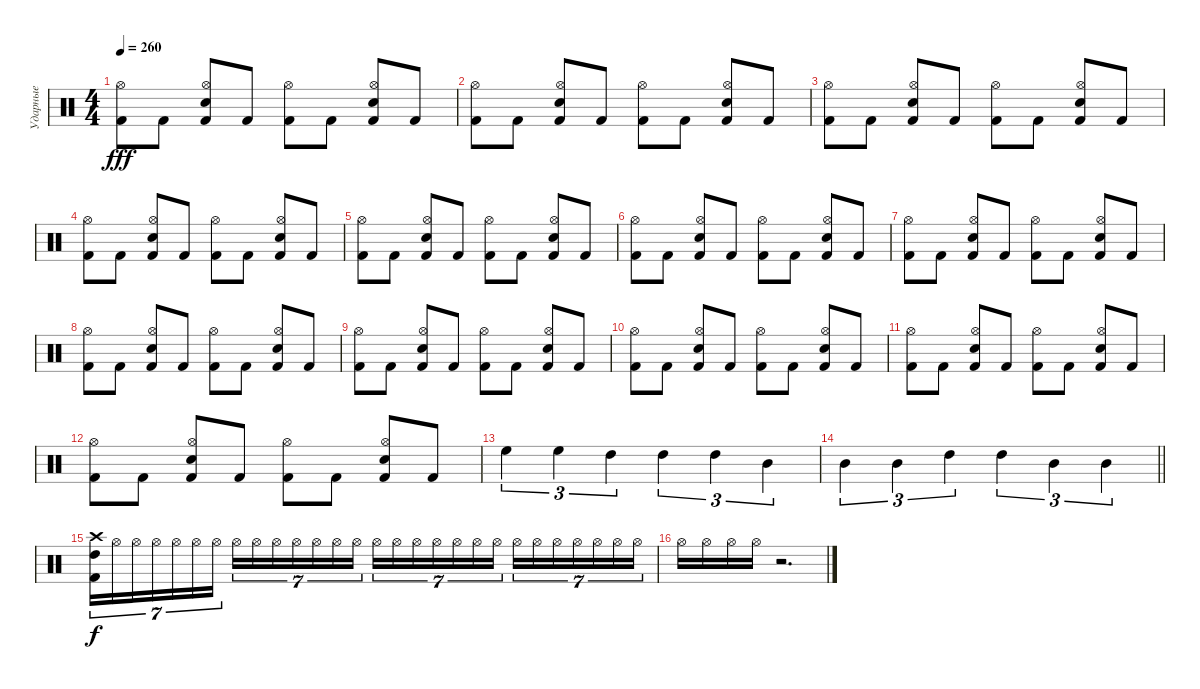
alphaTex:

\track ("Ударные" "Ударные") {instrument percussion}
\staff {score}
\articulation defaults
\ts (4 4)
\tempo 260
\clef neutral
\ks c
("Kick (hit) 2" "Hi-Hat (open)").8{dy fff} "Kick (hit) 2".8 ("Kick (hit) 2" "Snare (hit) 2" "Hi-Hat (open)").8 "Kick (hit) 2".8 ("Kick (hit) 2" "Hi-Hat (open)").8 "Kick (hit) 2".8 ("Kick (hit) 2" "Snare (hit) 2" "Hi-Hat (open)").8 "Kick (hit) 2".8 |
("Kick (hit) 2" "Hi-Hat (open)").8 "Kick (hit) 2".8 ("Kick (hit) 2" "Snare (hit) 2" "Hi-Hat (open)").8 "Kick (hit) 2".8 ("Kick (hit) 2" "Hi-Hat (open)").8 "Kick (hit) 2".8 ("Kick (hit) 2" "Snare (hit) 2" "Hi-Hat (open)").8 "Kick (hit) 2".8 |
("Kick (hit) 2" "Hi-Hat (open)").8 "Kick (hit) 2".8 ("Kick (hit) 2" "Snare (hit) 2" "Hi-Hat (open)").8 "Kick (hit) 2".8 ("Kick (hit) 2" "Hi-Hat (open)").8 "Kick (hit) 2".8 ("Kick (hit) 2" "Snare (hit) 2" "Hi-Hat (open)").8 "Kick (hit) 2".8 |
("Kick (hit) 2" "Hi-Hat (open)").8 "Kick (hit) 2".8 ("Kick (hit) 2" "Snare (hit) 2" "Hi-Hat (open)").8 "Kick (hit) 2".8 ("Kick (hit) 2" "Hi-Hat (open)").8 "Kick (hit) 2".8 ("Kick (hit) 2" "Snare (hit) 2" "Hi-Hat (open)").8 "Kick (hit) 2".8 |
("Kick (hit) 2" "Hi-Hat (open)").8 "Kick (hit) 2".8 ("Kick (hit) 2" "Snare (hit) 2" "Hi-Hat (open)").8 "Kick (hit) 2".8 ("Kick (hit) 2" "Hi-Hat (open)").8 "Kick (hit) 2".8 ("Kick (hit) 2" "Snare (hit) 2" "Hi-Hat (open)").8 "Kick (hit) 2".8 |
("Kick (hit) 2" "Hi-Hat (open)").8 "Kick (hit) 2".8 ("Kick (hit) 2" "Snare (hit) 2" "Hi-Hat (open)").8 "Kick (hit) 2".8 ("Kick (hit) 2" "Hi-Hat (open)").8 "Kick (hit) 2".8 ("Kick (hit) 2" "Snare (hit) 2" "Hi-Hat (open)").8 "Kick (hit) 2".8 |
("Kick (hit) 2" "Hi-Hat (open)").8 "Kick (hit) 2".8 ("Kick (hit) 2" "Snare (hit) 2" "Hi-Hat (open)").8 "Kick (hit) 2".8 ("Kick (hit) 2" "Hi-Hat (open)").8 "Kick (hit) 2".8 ("Kick (hit) 2" "Snare (hit) 2" "Hi-Hat (open)").8 "Kick (hit) 2".8 |
("Kick (hit) 2" "Hi-Hat (open)").8 "Kick (hit) 2".8 ("Kick (hit) 2" "Snare (hit) 2" "Hi-Hat (open)").8 "Kick (hit) 2".8 ("Kick (hit) 2" "Hi-Hat (open)").8 "Kick (hit) 2".8 ("Kick (hit) 2" "Snare (hit) 2" "Hi-Hat (open)").8 "Kick (hit) 2".8 |
("Kick (hit) 2" "Hi-Hat (open)").8 "Kick (hit) 2".8 ("Kick (hit) 2" "Snare (hit) 2" "Hi-Hat (open)").8 "Kick (hit) 2".8 ("Kick (hit) 2" "Hi-Hat (open)").8 "Kick (hit) 2".8 ("Kick (hit) 2" "Snare (hit) 2" "Hi-Hat (open)").8 "Kick (hit) 2".8 |
("Kick (hit) 2" "Hi-Hat (open)").8 "Kick (hit) 2".8 ("Kick (hit) 2" "Snare (hit) 2" "Hi-Hat (open)").8 "Kick (hit) 2".8 ("Kick (hit) 2" "Hi-Hat (open)").8 "Kick (hit) 2".8 ("Kick (hit) 2" "Snare (hit) 2" "Hi-Hat (open)").8 "Kick (hit) 2".8 |
("Kick (hit) 2" "Hi-Hat (open)").8 "Kick (hit) 2".8 ("Kick (hit) 2" "Snare (hit) 2" "Hi-Hat (open)").8 "Kick (hit) 2".8 ("Kick (hit) 2" "Hi-Hat (open)").8 "Kick (hit) 2".8 ("Kick (hit) 2" "Snare (hit) 2" "Hi-Hat (open)").8 "Kick (hit) 2".8 |
("Kick (hit) 2" "Hi-Hat (open)").8 "Kick (hit) 2".8 ("Kick (hit) 2" "Snare (hit) 2" "Hi-Hat (open)").8 "Kick (hit) 2".8 ("Kick (hit) 2" "Hi-Hat (open)").8 "Kick (hit) 2".8 ("Kick (hit) 2" "Snare (hit) 2" "Hi-Hat (open)").8 "Kick (hit) 2".8 |
"High Floor Tom (hit)".4{tu (3 2)} "High Floor Tom (hit)".4{tu (3 2)} "High Tom (hit)".4{tu (3 2)} "High Tom (hit)".4{tu (3 2)} "High Tom (hit)".4{tu (3 2)} "Mid Tom (hit)".4{tu (3 2)} |
\barLineRight lightlight "Mid Tom (hit)".4{tu (3 2)} "Mid Tom (hit)".4{tu (3 2)} "High Tom (hit)".4{tu (3 2)} "High Tom (hit)".4{tu (3 2)} "Mid Tom (hit)".4{tu (3 2)} "Mid Tom (hit)".4{tu (3 2)}
|
("Kick (hit) 2" "Crash high (hit)" "High Tom (hit)").16{tu (7 4) dy f} "Hi-Hat (open)".16{tu (7 4)} "Hi-Hat (open)".16{tu (7 4)} "Hi-Hat (open)".16{tu (7 4)} "Hi-Hat (open)".16{tu (7 4)} "Hi-Hat (open)".16{tu (7 4)} "Hi-Hat (open)".16{tu (7 4)} "Hi-Hat (open)".16{tu (7 4)} "Hi-Hat (open)".16{tu (7 4)} "Hi-Hat (open)".16{tu (7 4)} "Hi-Hat (open)".16{tu (7 4)} "Hi-Hat (open)".16{tu (7 4)} "Hi-Hat (open)".16{tu (7 4)} "Hi-Hat (open)".16{tu (7 4)} "Hi-Hat (open)".16{tu (7 4)} "Hi-Hat (open)".16{tu (7 4)} "Hi-Hat (open)".16{tu (7 4)} "Hi-Hat (open)".16{tu (7 4)} "Hi-Hat (open)".16{tu (7 4)} "Hi-Hat (open)".16{tu (7 4)} "Hi-Hat (open)".16{tu (7 4)} "Hi-Hat (open)".16{tu (7 4)} "Hi-Hat (open)".16{tu (7 4)} "Hi-Hat (open)".16{tu (7 4)} "Hi-Hat (open)".16{tu (7 4)} "Hi-Hat (open)".16{tu (7 4)} "Hi-Hat (open)".16{tu (7 4)} "Hi-Hat (open)".16{tu (7 4)} |
"Hi-Hat (open)".16 "Hi-Hat (open)".16 "Hi-Hat (open)".16 "Hi-Hat (open)".16 r.2{d}
